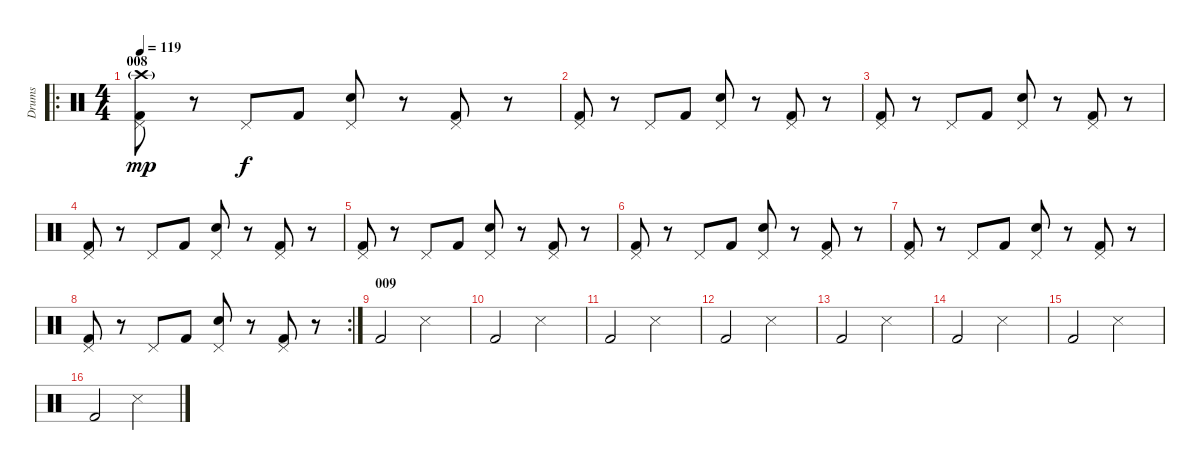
\track ("Drums" "Drums") {instrument percussion}
\staff {score}
\articulation defaults
\ro
\ts (4 4)
\section ("" "008")
\tempo 119
\clef neutral
\ks c
("Kick (hit) 2" "Pedal Hi-Hat (hit)" "Crash high (hit)"{g}).8{dy mp} r.8 "Pedal Hi-Hat (hit)".8{dy f} "Kick (hit) 2".8 ("Electric Snare (hit)" "Pedal Hi-Hat (hit)").8 r.8 ("Kick (hit) 2" "Pedal Hi-Hat (hit)").8 r.8 |
("Kick (hit) 2" "Pedal Hi-Hat (hit)").8 r.8 "Pedal Hi-Hat (hit)".8 "Kick (hit) 2".8 ("Electric Snare (hit)" "Pedal Hi-Hat (hit)").8 r.8 ("Kick (hit) 2" "Pedal Hi-Hat (hit)").8 r.8 |
("Kick (hit) 2" "Pedal Hi-Hat (hit)").8 r.8 "Pedal Hi-Hat (hit)".8 "Kick (hit) 2".8 ("Electric Snare (hit)" "Pedal Hi-Hat (hit)").8 r.8 ("Kick (hit) 2" "Pedal Hi-Hat (hit)").8 r.8 |
("Kick (hit) 2" "Pedal Hi-Hat (hit)").8 r.8 "Pedal Hi-Hat (hit)".8 "Kick (hit) 2".8 ("Electric Snare (hit)" "Pedal Hi-Hat (hit)").8 r.8 ("Kick (hit) 2" "Pedal Hi-Hat (hit)").8 r.8 |
("Kick (hit) 2" "Pedal Hi-Hat (hit)").8 r.8 "Pedal Hi-Hat (hit)".8 "Kick (hit) 2".8 ("Electric Snare (hit)" "Pedal Hi-Hat (hit)").8 r.8 ("Kick (hit) 2" "Pedal Hi-Hat (hit)").8 r.8 |
("Kick (hit) 2" "Pedal Hi-Hat (hit)").8 r.8 "Pedal Hi-Hat (hit)".8 "Kick (hit) 2".8 ("Electric Snare (hit)" "Pedal Hi-Hat (hit)").8 r.8 ("Kick (hit) 2" "Pedal Hi-Hat (hit)").8 r.8 |
("Kick (hit) 2" "Pedal Hi-Hat (hit)").8 r.8 "Pedal Hi-Hat (hit)".8 "Kick (hit) 2".8 ("Electric Snare (hit)" "Pedal Hi-Hat (hit)").8 r.8 ("Kick (hit) 2" "Pedal Hi-Hat (hit)").8 r.8 |
\rc 2
("Kick (hit) 2" "Pedal Hi-Hat (hit)").8 r.8 "Pedal Hi-Hat (hit)".8 "Kick (hit) 2".8 ("Electric Snare (hit)" "Pedal Hi-Hat (hit)").8 r.8 ("Kick (hit) 2" "Pedal Hi-Hat (hit)").8 r.8 |
\section ("" "009")
"Kick (hit) 2".2 "Snare (side stick) 3".2 |
"Kick (hit) 2".2 "Snare (side stick) 3".2 |
"Kick (hit) 2".2 "Snare (side stick) 3".2 |
"Kick (hit) 2".2 "Snare (side stick) 3".2 |
"Kick (hit) 2".2 "Snare (side stick) 3".2 |
"Kick (hit) 2".2 "Snare (side stick) 3".2 |
"Kick (hit) 2".2 "Snare (side stick) 3".2 |
"Kick (hit) 2".2 "Snare (side stick) 3".2
